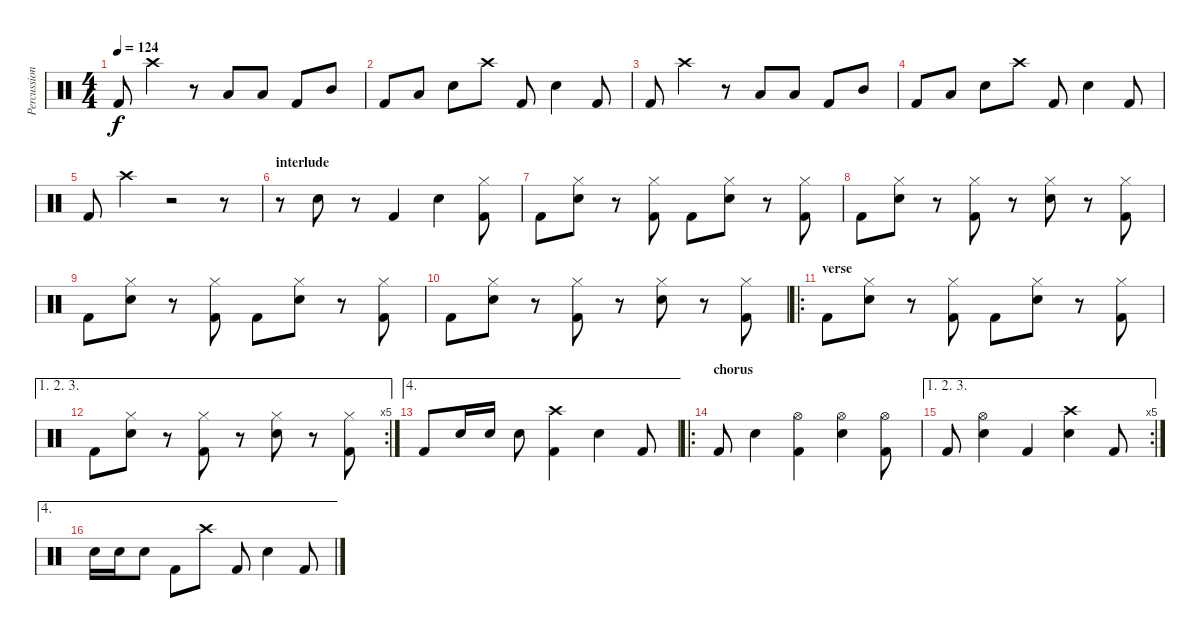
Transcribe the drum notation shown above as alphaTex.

\track ("Percussion" "Percussion") {instrument percussion}
\staff {score}
\articulation defaults
\ts (4 4)
\tempo 124
\clef neutral
\ks c "Kick (hit) 2".8{dy f} "Crash high (hit)".4
r.8 "Low Tom (hit)".8 "Low Tom (hit)".8 "Kick (hit) 2".8 "Mid Tom (hit)".8 |
"Kick (hit) 2".8 "Low Tom (hit)".8 "Electric Snare (hit)".8 "Crash high (hit)".8 "Kick (hit) 2".8 "Electric Snare (hit)".4 "Kick (hit) 2".8 |
"Kick (hit) 2".8 "Crash high (hit)".4 r.8 "Low Tom (hit)".8 "Low Tom (hit)".8 "Kick (hit) 2".8 "Mid Tom (hit)".8 |
"Kick (hit) 2".8 "Low Tom (hit)".8 "Electric Snare (hit)".8 "Crash high (hit)".8 "Kick (hit) 2".8 "Electric Snare (hit)".4 "Kick (hit) 2".8 |
"Kick (hit) 2".8 "Crash high (hit)".4 r.2 r.8 |
\section ("" "interlude")
r.8 "Electric Snare (hit)".8 r.8 "Kick (hit) 2".4 "Electric Snare (hit)".4 ("Hi-Hat (closed)" "Kick (hit) 2").8 |
"Kick (hit) 2".8 ("Hi-Hat (closed)" "Electric Snare (hit)").8 r.8 ("Hi-Hat (closed)" "Kick (hit) 2").8 "Kick (hit) 2".8 ("Hi-Hat (closed)" "Electric Snare (hit)").8 r.8 ("Hi-Hat (closed)" "Kick (hit) 2").8 |
"Kick (hit) 2".8 ("Hi-Hat (closed)" "Electric Snare (hit)").8 r.8 ("Hi-Hat (closed)" "Kick (hit) 2").8 r.8 ("Hi-Hat (closed)" "Electric Snare (hit)").8 r.8 ("Hi-Hat (closed)" "Kick (hit) 2").8 |
"Kick (hit) 2".8 ("Hi-Hat (closed)" "Electric Snare (hit)").8 r.8 ("Hi-Hat (closed)" "Kick (hit) 2").8 "Kick (hit) 2".8 ("Hi-Hat (closed)" "Electric Snare (hit)").8 r.8 ("Hi-Hat (closed)" "Kick (hit) 2").8 |
"Kick (hit) 2".8 ("Hi-Hat (closed)" "Electric Snare (hit)").8 r.8 ("Hi-Hat (closed)" "Kick (hit) 2").8 r.8 ("Hi-Hat (closed)" "Electric Snare (hit)").8 r.8 ("Hi-Hat (closed)" "Kick (hit) 2").8 |
\ro
\section ("" "verse")
"Kick (hit) 2".8 ("Hi-Hat (closed)" "Electric Snare (hit)").8 r.8 ("Hi-Hat (closed)" "Kick (hit) 2").8 "Kick (hit) 2".8 ("Hi-Hat (closed)" "Electric Snare (hit)").8 r.8 ("Hi-Hat (closed)" "Kick (hit) 2").8 |
\ae (1 2 3)
\rc 5 "Kick (hit) 2".8
("Hi-Hat (closed)" "Electric Snare (hit)").8 r.8 ("Hi-Hat (closed)" "Kick (hit) 2").8 r.8 ("Hi-Hat (closed)" "Electric Snare (hit)").8 r.8 ("Hi-Hat (closed)" "Kick (hit) 2").8 |
\ae 4 "Kick (hit) 2".8 "Electric Snare (hit)".16 "Electric Snare (hit)".16 "Electric Snare (hit)".8
("Crash high (hit)" "Kick (hit) 2").4 "Electric Snare (hit)".4 "Kick (hit) 2".8 |
\ro
\section ("" "chorus")
"Kick (hit) 2".8 "Electric Snare (hit)".4 ("Hi-Hat (open)" "Kick (hit) 2").4 ("Hi-Hat (open)" "Electric Snare (hit)").4 ("Hi-Hat (open)" "Kick (hit) 2").8 |
\ae (1 2 3)
\rc 5 "Kick (hit) 2".8
("Hi-Hat (open)" "Electric Snare (hit)").4 "Kick (hit) 2".4 ("Crash high (hit)" "Electric Snare (hit)").4 "Kick (hit) 2".8 |
\ae 4 "Electric Snare (hit)".16 "Electric Snare (hit)".16 "Electric Snare (hit)".8 "Kick (hit) 2".8 "Crash high (hit)".8 "Kick (hit) 2".8 "Electric Snare (hit)".4 "Kick (hit) 2".8
